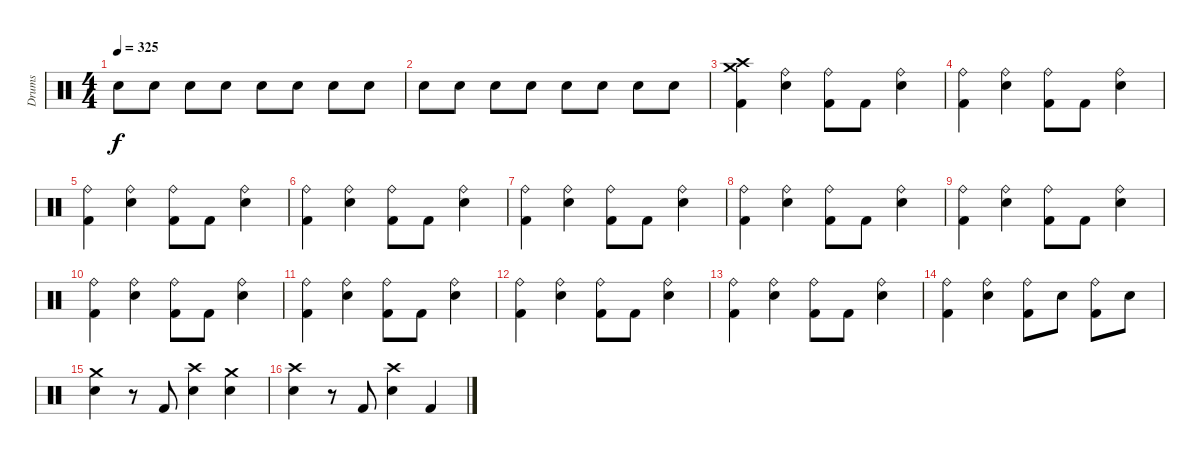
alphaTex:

\track ("Drums" "Drums") {instrument percussion}
\staff {score}
\articulation defaults
\ts (4 4)
\tempo 325
\clef neutral
\ks c "Electric Snare (hit)".8{dy f} "Electric Snare (hit)".8 "Electric Snare (hit)".8 "Electric Snare (hit)".8 "Electric Snare (hit)".8 "Electric Snare (hit)".8 "Electric Snare (hit)".8 "Electric Snare (hit)".8
|
"Electric Snare (hit)".8 "Electric Snare (hit)".8 "Electric Snare (hit)".8 "Electric Snare (hit)".8 "Electric Snare (hit)".8 "Electric Snare (hit)".8 "Electric Snare (hit)".8 "Electric Snare (hit)".8 |
("Kick (hit) 2" "Crash high (hit)" "Crash medium (hit)").4 ("Electric Snare (hit)" "Ride (bell)").4 ("Kick (hit) 2" "Ride (bell)").8 "Kick (hit) 2".8 ("Electric Snare (hit)" "Ride (bell)").4 |
("Kick (hit) 2" "Ride (bell)").4 ("Electric Snare (hit)" "Ride (bell)").4 ("Kick (hit) 2" "Ride (bell)").8 "Kick (hit) 2".8 ("Electric Snare (hit)" "Ride (bell)").4 |
("Kick (hit) 2" "Ride (bell)").4 ("Electric Snare (hit)" "Ride (bell)").4 ("Kick (hit) 2" "Ride (bell)").8 "Kick (hit) 2".8 ("Electric Snare (hit)" "Ride (bell)").4 |
("Kick (hit) 2" "Ride (bell)").4 ("Electric Snare (hit)" "Ride (bell)").4 ("Kick (hit) 2" "Ride (bell)").8 "Kick (hit) 2".8 ("Electric Snare (hit)" "Ride (bell)").4 |
("Ride (bell)" "Kick (hit) 2").4 ("Electric Snare (hit)" "Ride (bell)").4 ("Kick (hit) 2" "Ride (bell)").8 "Kick (hit) 2".8 ("Electric Snare (hit)" "Ride (bell)").4 |
("Kick (hit) 2" "Ride (bell)").4 ("Electric Snare (hit)" "Ride (bell)").4 ("Kick (hit) 2" "Ride (bell)").8 "Kick (hit) 2".8 ("Electric Snare (hit)" "Ride (bell)").4 |
("Kick (hit) 2" "Ride (bell)").4 ("Electric Snare (hit)" "Ride (bell)").4 ("Kick (hit) 2" "Ride (bell)").8 "Kick (hit) 2".8 ("Electric Snare (hit)" "Ride (bell)").4 |
("Kick (hit) 2" "Ride (bell)").4 ("Electric Snare (hit)" "Ride (bell)").4 ("Kick (hit) 2" "Ride (bell)").8 "Kick (hit) 2".8 ("Electric Snare (hit)" "Ride (bell)").4 |
("Ride (bell)" "Kick (hit) 2").4 ("Electric Snare (hit)" "Ride (bell)").4 ("Kick (hit) 2" "Ride (bell)").8 "Kick (hit) 2".8 ("Electric Snare (hit)" "Ride (bell)").4 |
("Kick (hit) 2" "Ride (bell)").4 ("Electric Snare (hit)" "Ride (bell)").4 ("Kick (hit) 2" "Ride (bell)").8 "Kick (hit) 2".8 ("Electric Snare (hit)" "Ride (bell)").4 |
("Kick (hit) 2" "Ride (bell)").4 ("Electric Snare (hit)" "Ride (bell)").4 ("Kick (hit) 2" "Ride (bell)").8 "Kick (hit) 2".8 ("Electric Snare (hit)" "Ride (bell)").4 |
("Ride (bell)" "Kick (hit) 2").4 ("Electric Snare (hit)" "Ride (bell)").4 ("Kick (hit) 2" "Ride (bell)").8 "Electric Snare (hit)".8 ("Kick (hit) 2" "Ride (bell)").8 "Electric Snare (hit)".8 |
("Electric Snare (hit)" "Crash medium (hit)").4 r.8 "Kick (hit) 2".8 ("Crash high (hit)" "Electric Snare (hit)").4 ("Crash medium (hit)" "Electric Snare (hit)").4 |
("Electric Snare (hit)" "Crash high (hit)").4 r.8 "Kick (hit) 2".8 ("Crash high (hit)" "Electric Snare (hit)").4 "Kick (hit) 2".4
